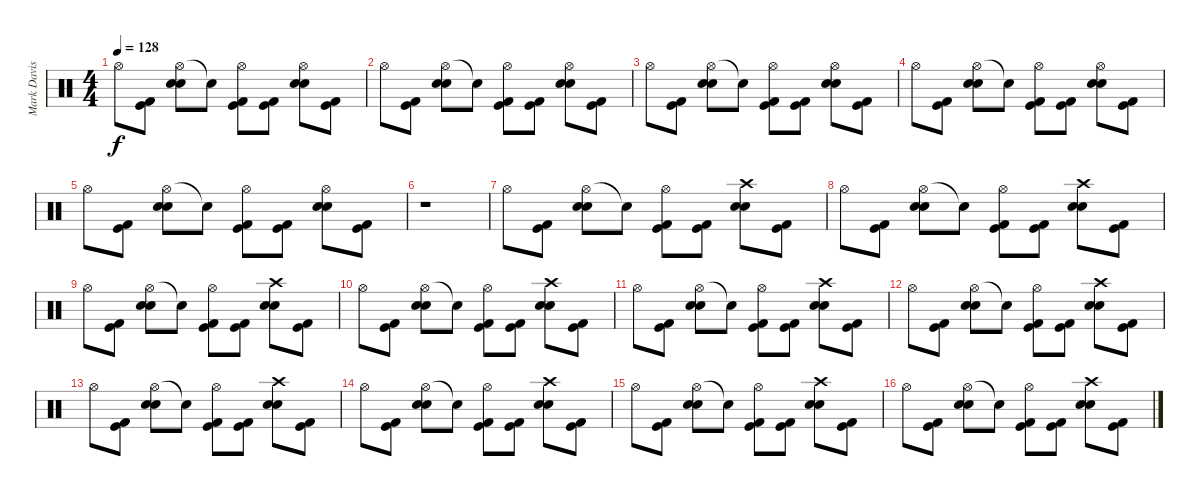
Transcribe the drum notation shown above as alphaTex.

\track ("Mark Davis (drums)" "Mark Davis") {instrument percussion}
\staff {score}
\articulation defaults
\ts (4 4)
\tempo 128
\clef neutral
\ks c "Hi-Hat (open)".8{dy f}
("Kick (hit)" "Kick (hit) 2").8 ("Hi-Hat (open)" "Snare (hit) 2" "Electric Snare (hit)").8 "Snare (hit)"{t}.8 ("Hi-Hat (open)" "Kick (hit)" "Kick (hit) 2").8 ("Kick (hit)" "Kick (hit) 2").8 ("Hi-Hat (open)" "Snare (hit) 2" "Electric Snare (hit)").8 ("Kick (hit)" "Kick (hit) 2").8 |
"Hi-Hat (open)".8 ("Kick (hit)" "Kick (hit) 2").8 ("Hi-Hat (open)" "Snare (hit) 2" "Electric Snare (hit)").8 "Snare (hit)"{t}.8 ("Hi-Hat (open)" "Kick (hit)" "Kick (hit) 2").8 ("Kick (hit)" "Kick (hit) 2").8 ("Hi-Hat (open)" "Snare (hit) 2" "Electric Snare (hit)").8 ("Kick (hit)" "Kick (hit) 2").8 |
"Hi-Hat (open)".8 ("Kick (hit)" "Kick (hit) 2").8 ("Hi-Hat (open)" "Snare (hit) 2" "Electric Snare (hit)").8 "Snare (hit)"{t}.8 ("Hi-Hat (open)" "Kick (hit)" "Kick (hit) 2").8 ("Kick (hit)" "Kick (hit) 2").8 ("Hi-Hat (open)" "Snare (hit) 2" "Electric Snare (hit)").8 ("Kick (hit)" "Kick (hit) 2").8 |
"Hi-Hat (open)".8 ("Kick (hit)" "Kick (hit) 2").8 ("Hi-Hat (open)" "Snare (hit) 2" "Electric Snare (hit)").8 "Snare (hit)"{t}.8 ("Hi-Hat (open)" "Kick (hit)" "Kick (hit) 2").8 ("Kick (hit)" "Kick (hit) 2").8 ("Hi-Hat (open)" "Snare (hit) 2" "Electric Snare (hit)").8 ("Kick (hit)" "Kick (hit) 2").8 |
"Hi-Hat (open)".8 ("Kick (hit)" "Kick (hit) 2").8 ("Hi-Hat (open)" "Snare (hit) 2" "Electric Snare (hit)").8 "Snare (hit)"{t}.8 ("Hi-Hat (open)" "Kick (hit)" "Kick (hit) 2").8 ("Kick (hit)" "Kick (hit) 2").8 ("Hi-Hat (open)" "Snare (hit) 2" "Electric Snare (hit)").8 ("Kick (hit)" "Kick (hit) 2").8 |
r.1 |
"Hi-Hat (open)".8 ("Kick (hit)" "Kick (hit) 2").8 ("Hi-Hat (open)" "Snare (hit) 2" "Electric Snare (hit)").8 "Snare (hit)"{t}.8 ("Hi-Hat (open)" "Kick (hit)" "Kick (hit) 2").8 ("Kick (hit)" "Kick (hit) 2").8 ("Crash high (hit)" "Snare (hit) 2" "Electric Snare (hit)").8 ("Kick (hit)" "Kick (hit) 2").8 |
"Hi-Hat (open)".8 ("Kick (hit)" "Kick (hit) 2").8 ("Hi-Hat (open)" "Snare (hit) 2" "Electric Snare (hit)").8 "Snare (hit)"{t}.8 ("Hi-Hat (open)" "Kick (hit)" "Kick (hit) 2").8 ("Kick (hit)" "Kick (hit) 2").8 ("Crash high (hit)" "Snare (hit) 2" "Electric Snare (hit)").8 ("Kick (hit)" "Kick (hit) 2").8 |
"Hi-Hat (open)".8 ("Kick (hit)" "Kick (hit) 2").8 ("Hi-Hat (open)" "Snare (hit) 2" "Electric Snare (hit)").8 "Snare (hit)"{t}.8 ("Hi-Hat (open)" "Kick (hit)" "Kick (hit) 2").8 ("Kick (hit)" "Kick (hit) 2").8 ("Crash high (hit)" "Snare (hit) 2" "Electric Snare (hit)").8 ("Kick (hit)" "Kick (hit) 2").8 |
"Hi-Hat (open)".8 ("Kick (hit)" "Kick (hit) 2").8 ("Hi-Hat (open)" "Snare (hit) 2" "Electric Snare (hit)").8 "Snare (hit)"{t}.8 ("Hi-Hat (open)" "Kick (hit)" "Kick (hit) 2").8 ("Kick (hit)" "Kick (hit) 2").8 ("Crash high (hit)" "Snare (hit) 2" "Electric Snare (hit)").8 ("Kick (hit)" "Kick (hit) 2").8 |
"Hi-Hat (open)".8 ("Kick (hit)" "Kick (hit) 2").8 ("Hi-Hat (open)" "Snare (hit) 2" "Electric Snare (hit)").8 "Snare (hit)"{t}.8 ("Hi-Hat (open)" "Kick (hit)" "Kick (hit) 2").8 ("Kick (hit)" "Kick (hit) 2").8 ("Crash high (hit)" "Snare (hit) 2" "Electric Snare (hit)").8 ("Kick (hit)" "Kick (hit) 2").8 |
"Hi-Hat (open)".8 ("Kick (hit)" "Kick (hit) 2").8 ("Hi-Hat (open)" "Snare (hit) 2" "Electric Snare (hit)").8 "Snare (hit)"{t}.8 ("Hi-Hat (open)" "Kick (hit)" "Kick (hit) 2").8 ("Kick (hit)" "Kick (hit) 2").8 ("Crash high (hit)" "Snare (hit) 2" "Electric Snare (hit)").8 ("Kick (hit)" "Kick (hit) 2").8 |
"Hi-Hat (open)".8 ("Kick (hit)" "Kick (hit) 2").8 ("Hi-Hat (open)" "Snare (hit) 2" "Electric Snare (hit)").8 "Snare (hit)"{t}.8 ("Hi-Hat (open)" "Kick (hit)" "Kick (hit) 2").8 ("Kick (hit)" "Kick (hit) 2").8 ("Crash high (hit)" "Snare (hit) 2" "Electric Snare (hit)").8 ("Kick (hit)" "Kick (hit) 2").8 |
"Hi-Hat (open)".8 ("Kick (hit)" "Kick (hit) 2").8 ("Hi-Hat (open)" "Snare (hit) 2" "Electric Snare (hit)").8 "Snare (hit)"{t}.8 ("Hi-Hat (open)" "Kick (hit)" "Kick (hit) 2").8 ("Kick (hit)" "Kick (hit) 2").8 ("Crash high (hit)" "Snare (hit) 2" "Electric Snare (hit)").8 ("Kick (hit)" "Kick (hit) 2").8 |
"Hi-Hat (open)".8 ("Kick (hit)" "Kick (hit) 2").8 ("Hi-Hat (open)" "Snare (hit) 2" "Electric Snare (hit)").8 "Snare (hit)"{t}.8 ("Hi-Hat (open)" "Kick (hit)" "Kick (hit) 2").8 ("Kick (hit)" "Kick (hit) 2").8 ("Crash high (hit)" "Snare (hit) 2" "Electric Snare (hit)").8 ("Kick (hit)" "Kick (hit) 2").8 |
"Hi-Hat (open)".8 ("Kick (hit)" "Kick (hit) 2").8 ("Hi-Hat (open)" "Snare (hit) 2" "Electric Snare (hit)").8 "Snare (hit)"{t}.8 ("Hi-Hat (open)" "Kick (hit)" "Kick (hit) 2").8 ("Kick (hit)" "Kick (hit) 2").8 ("Crash high (hit)" "Snare (hit) 2" "Electric Snare (hit)").8 ("Kick (hit)" "Kick (hit) 2").8
